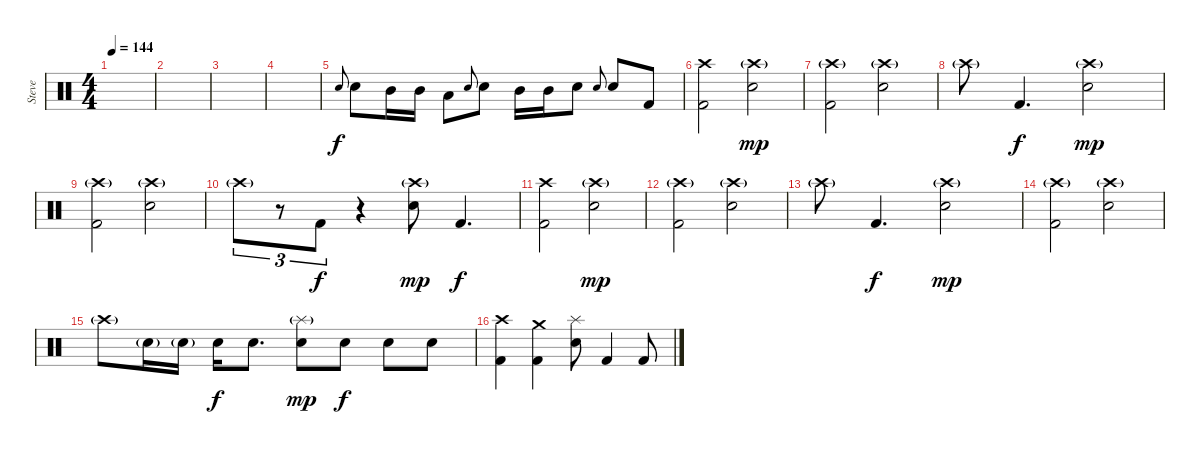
\track ("Steve" "Steve") {instrument percussion}
\staff {score}
\articulation defaults
\ts (4 4)
\tempo 144
\clef neutral
\ks c
|
|
|
|
"Electric Snare (hit)".8{gr onbeat dy f} "Electric Snare (hit)".8 "Mid Tom (hit)".16 "Mid Tom (hit)".16 "Low Tom (hit)".8 "Electric Snare (hit)".8{gr onbeat} "Electric Snare (hit)".8 "Mid Tom (hit)".16 "Mid Tom (hit)".16 "Electric Snare (hit)".8 "Electric Snare (hit)".8{gr onbeat} "Electric Snare (hit)".8 "Kick (hit) 2".8 |
("Crash high (hit)" "Kick (hit) 2").2 ("Crash high (hit)"{g} "Electric Snare (hit)").2{dy mp} |
("Crash high (hit)"{g} "Kick (hit) 2").2 ("Crash high (hit)"{g} "Electric Snare (hit)").2 |
"Crash high (hit)"{g}.8 "Kick (hit) 2".4{d dy f} ("Crash high (hit)"{g} "Electric Snare (hit)").2{dy mp} |
("Crash high (hit)"{g} "Kick (hit) 2").2 ("Crash high (hit)"{g} "Electric Snare (hit)").2 |
"Crash high (hit)"{g}.8{tu (3 2)} r.8{tu (3 2)} "Kick (hit) 2".8{tu (3 2) dy f} r.4 ("Crash high (hit)"{g} "Electric Snare (hit)").8{dy mp} "Kick (hit) 2".4{d dy f} |
("Crash high (hit)" "Kick (hit) 2").2 ("Crash high (hit)"{g} "Electric Snare (hit)").2{dy mp} |
("Crash high (hit)"{g} "Kick (hit) 2").2 ("Crash high (hit)"{g} "Electric Snare (hit)").2 |
"Crash high (hit)"{g}.8 "Kick (hit) 2".4{d dy f} ("Crash high (hit)"{g} "Electric Snare (hit)").2{dy mp} |
("Crash high (hit)"{g} "Kick (hit) 2").2 ("Crash high (hit)"{g} "Electric Snare (hit)").2 |
"Crash high (hit)"{g}.8 "Electric Snare (hit)"{g}.16 "Electric Snare (hit)"{g}.16 "Electric Snare (hit)".16{dy f} "Electric Snare (hit)".8{d} ("Splash (hit)"{g} "Electric Snare (hit)").8{dy mp} "Electric Snare (hit)".8{dy f} "Electric Snare (hit)".8 "Electric Snare (hit)".8 |
("Crash high (hit)" "Kick (hit) 2").4 ("Crash medium (hit)" "Kick (hit) 2").4 ("Splash (hit)" "Electric Snare (hit)").8 "Kick (hit) 2".4 "Kick (hit) 2".8
